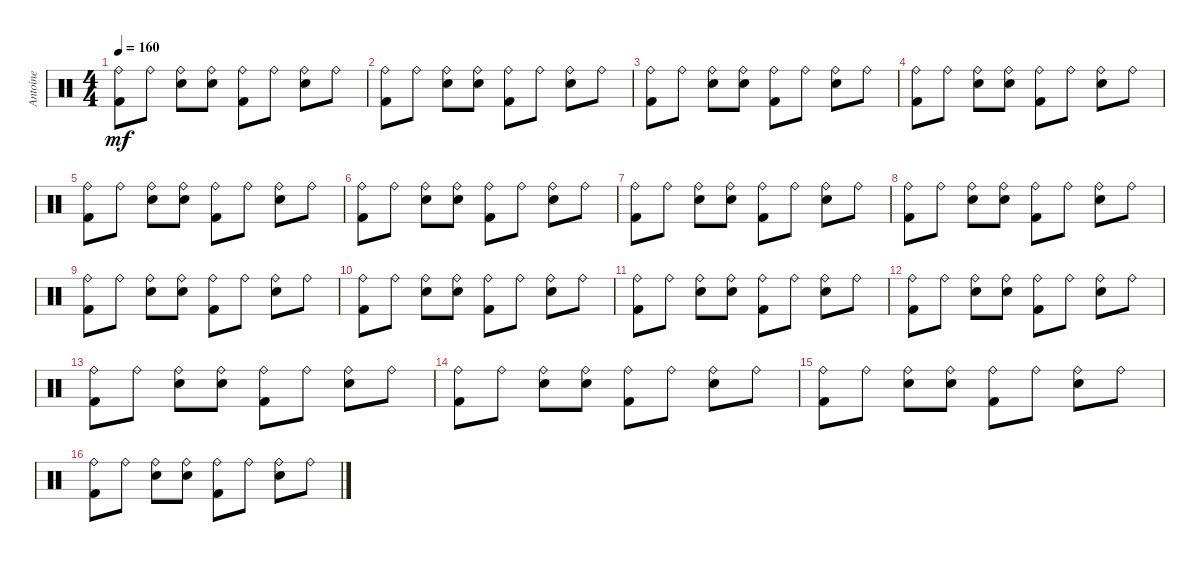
\track ("Antoine" "Antoine") {instrument percussion}
\staff {score}
\articulation defaults
\ts (4 4)
\tempo 160
\clef neutral
\ks c
("Kick (hit) 2" "Ride (bell)").8{dy mf} "Ride (bell)".8 ("Electric Snare (hit)" "Ride (bell)").8 ("Electric Snare (hit)" "Ride (bell)").8 ("Kick (hit) 2" "Ride (bell)").8 "Ride (bell)".8 ("Electric Snare (hit)" "Ride (bell)").8 "Ride (bell)".8 |
("Kick (hit) 2" "Ride (bell)").8 "Ride (bell)".8 ("Electric Snare (hit)" "Ride (bell)").8 ("Electric Snare (hit)" "Ride (bell)").8 ("Kick (hit) 2" "Ride (bell)").8 "Ride (bell)".8 ("Electric Snare (hit)" "Ride (bell)").8 "Ride (bell)".8 |
("Kick (hit) 2" "Ride (bell)").8 "Ride (bell)".8 ("Electric Snare (hit)" "Ride (bell)").8 ("Electric Snare (hit)" "Ride (bell)").8 ("Kick (hit) 2" "Ride (bell)").8 "Ride (bell)".8 ("Electric Snare (hit)" "Ride (bell)").8 "Ride (bell)".8 |
("Kick (hit) 2" "Ride (bell)").8 "Ride (bell)".8 ("Electric Snare (hit)" "Ride (bell)").8 ("Electric Snare (hit)" "Ride (bell)").8 ("Kick (hit) 2" "Ride (bell)").8 "Ride (bell)".8 ("Electric Snare (hit)" "Ride (bell)").8 "Ride (bell)".8 |
("Kick (hit) 2" "Ride (bell)").8 "Ride (bell)".8 ("Electric Snare (hit)" "Ride (bell)").8 ("Electric Snare (hit)" "Ride (bell)").8 ("Kick (hit) 2" "Ride (bell)").8 "Ride (bell)".8 ("Electric Snare (hit)" "Ride (bell)").8 "Ride (bell)".8 |
("Kick (hit) 2" "Ride (bell)").8 "Ride (bell)".8 ("Electric Snare (hit)" "Ride (bell)").8 ("Electric Snare (hit)" "Ride (bell)").8 ("Kick (hit) 2" "Ride (bell)").8 "Ride (bell)".8 ("Electric Snare (hit)" "Ride (bell)").8 "Ride (bell)".8 |
("Kick (hit) 2" "Ride (bell)").8 "Ride (bell)".8 ("Electric Snare (hit)" "Ride (bell)").8 ("Electric Snare (hit)" "Ride (bell)").8 ("Kick (hit) 2" "Ride (bell)").8 "Ride (bell)".8 ("Electric Snare (hit)" "Ride (bell)").8 "Ride (bell)".8 |
("Kick (hit) 2" "Ride (bell)").8 "Ride (bell)".8 ("Electric Snare (hit)" "Ride (bell)").8 ("Electric Snare (hit)" "Ride (bell)").8 ("Kick (hit) 2" "Ride (bell)").8 "Ride (bell)".8 ("Electric Snare (hit)" "Ride (bell)").8 "Ride (bell)".8 |
("Kick (hit) 2" "Ride (bell)").8 "Ride (bell)".8 ("Electric Snare (hit)" "Ride (bell)").8 ("Electric Snare (hit)" "Ride (bell)").8 ("Kick (hit) 2" "Ride (bell)").8 "Ride (bell)".8 ("Electric Snare (hit)" "Ride (bell)").8 "Ride (bell)".8 |
("Kick (hit) 2" "Ride (bell)").8 "Ride (bell)".8 ("Electric Snare (hit)" "Ride (bell)").8 ("Electric Snare (hit)" "Ride (bell)").8 ("Kick (hit) 2" "Ride (bell)").8 "Ride (bell)".8 ("Electric Snare (hit)" "Ride (bell)").8 "Ride (bell)".8 |
("Kick (hit) 2" "Ride (bell)").8 "Ride (bell)".8 ("Electric Snare (hit)" "Ride (bell)").8 ("Electric Snare (hit)" "Ride (bell)").8 ("Kick (hit) 2" "Ride (bell)").8 "Ride (bell)".8 ("Electric Snare (hit)" "Ride (bell)").8 "Ride (bell)".8 |
("Kick (hit) 2" "Ride (bell)").8 "Ride (bell)".8 ("Electric Snare (hit)" "Ride (bell)").8 ("Electric Snare (hit)" "Ride (bell)").8 ("Kick (hit) 2" "Ride (bell)").8 "Ride (bell)".8 ("Electric Snare (hit)" "Ride (bell)").8 "Ride (bell)".8 |
("Kick (hit) 2" "Ride (bell)").8 "Ride (bell)".8 ("Electric Snare (hit)" "Ride (bell)").8 ("Electric Snare (hit)" "Ride (bell)").8 ("Kick (hit) 2" "Ride (bell)").8 "Ride (bell)".8 ("Electric Snare (hit)" "Ride (bell)").8 "Ride (bell)".8 |
("Kick (hit) 2" "Ride (bell)").8 "Ride (bell)".8 ("Electric Snare (hit)" "Ride (bell)").8 ("Electric Snare (hit)" "Ride (bell)").8 ("Kick (hit) 2" "Ride (bell)").8 "Ride (bell)".8 ("Electric Snare (hit)" "Ride (bell)").8 "Ride (bell)".8 |
("Kick (hit) 2" "Ride (bell)").8 "Ride (bell)".8 ("Electric Snare (hit)" "Ride (bell)").8 ("Electric Snare (hit)" "Ride (bell)").8 ("Kick (hit) 2" "Ride (bell)").8 "Ride (bell)".8 ("Electric Snare (hit)" "Ride (bell)").8 "Ride (bell)".8 |
("Kick (hit) 2" "Ride (bell)").8 "Ride (bell)".8 ("Electric Snare (hit)" "Ride (bell)").8 ("Electric Snare (hit)" "Ride (bell)").8 ("Kick (hit) 2" "Ride (bell)").8 "Ride (bell)".8 ("Electric Snare (hit)" "Ride (bell)").8 "Ride (bell)".8
